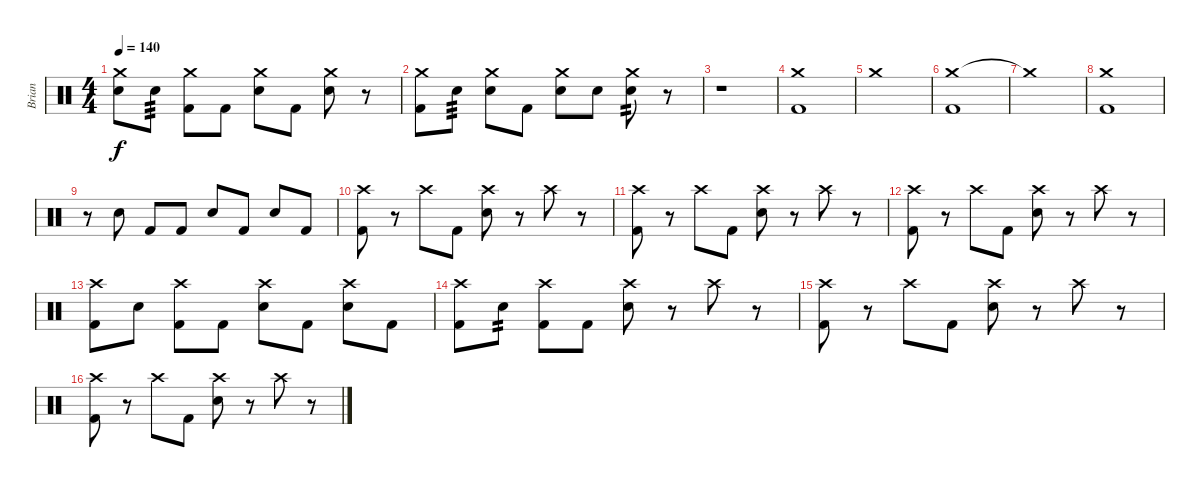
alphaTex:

\track ("Brian" "Brian") {instrument percussion}
\staff {score}
\articulation defaults
\ts (4 4)
\tempo 140
\clef neutral
\ks c
("Crash medium (hit)" "Electric Snare (hit)").8{dy f} "Electric Snare (hit)".8{tp 3} ("Crash medium (hit)" "Kick (hit) 2").8 "Kick (hit) 2".8 ("Crash medium (hit)" "Electric Snare (hit)").8 "Kick (hit) 2".8 ("Crash medium (hit)" "Electric Snare (hit)").8 r.8 |
("Crash medium (hit)" "Kick (hit) 2").8 "Electric Snare (hit)".8{tp 3} ("Crash medium (hit)" "Electric Snare (hit)").8 "Kick (hit) 2".8 ("Crash medium (hit)" "Electric Snare (hit)").8 "Electric Snare (hit)".8 ("Crash medium (hit)" "Electric Snare (hit)").8{tp 2} r.8 |
r.1 |
("Crash medium (hit)" "Kick (hit) 2").1 |
"Crash medium (hit)".1 |
("Crash medium (hit)" "Kick (hit) 2").1 |
"Crash medium (hit)"{t}.1 |
("Crash medium (hit)" "Kick (hit) 2").1 |
r.8 "Electric Snare (hit)".8 "Kick (hit) 2".8 "Kick (hit) 2".8 "Electric Snare (hit)".8 "Kick (hit) 2".8 "Electric Snare (hit)".8 "Kick (hit) 2".8 |
("Crash high (hit)" "Kick (hit) 2").8 r.8 "Crash high (hit)".8 "Kick (hit) 2".8 ("Crash high (hit)" "Electric Snare (hit)").8 r.8 "Crash high (hit)".8 r.8 |
("Crash high (hit)" "Kick (hit) 2").8 r.8 "Crash high (hit)".8 "Kick (hit) 2".8 ("Crash high (hit)" "Electric Snare (hit)").8 r.8 "Crash high (hit)".8 r.8 |
("Crash high (hit)" "Kick (hit) 2").8 r.8 "Crash high (hit)".8 "Kick (hit) 2".8 ("Crash high (hit)" "Electric Snare (hit)").8 r.8 "Crash high (hit)".8 r.8 |
("Crash high (hit)" "Kick (hit) 2").8 "Electric Snare (hit)".8 ("Crash high (hit)" "Kick (hit) 2").8 "Kick (hit) 2".8 ("Crash high (hit)" "Electric Snare (hit)").8 "Kick (hit) 2".8 ("Crash high (hit)" "Electric Snare (hit)").8 "Kick (hit) 2".8 |
("Crash high (hit)" "Kick (hit) 2").8 "Electric Snare (hit)".8{tp 2} ("Crash high (hit)" "Kick (hit) 2").8 "Kick (hit) 2".8 ("Crash high (hit)" "Electric Snare (hit)").8 r.8 "Crash high (hit)".8 r.8 |
("Crash high (hit)" "Kick (hit) 2").8 r.8 "Crash high (hit)".8 "Kick (hit) 2".8 ("Crash high (hit)" "Electric Snare (hit)").8 r.8 "Crash high (hit)".8 r.8 |
("Crash high (hit)" "Kick (hit) 2").8 r.8 "Crash high (hit)".8 "Kick (hit) 2".8 ("Crash high (hit)" "Electric Snare (hit)").8 r.8 "Crash high (hit)".8 r.8
